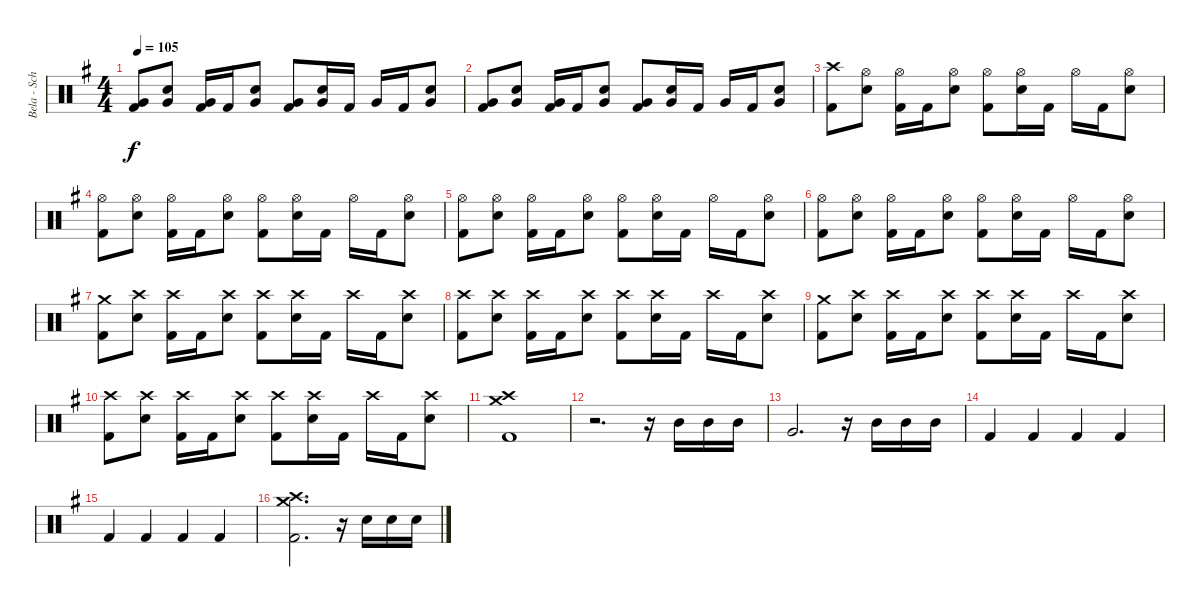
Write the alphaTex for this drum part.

\track ("Bela - Schlagzeug" "Bela - Sch") {instrument percussion}
\staff {score}
\articulation defaults
\ts (4 4)
\tempo 105
\clef neutral
\ks g
("Very Low Tom (hit)" "Kick (hit) 2").8{dy f} ("Very Low Tom (hit)" "Snare (hit) 2").8 ("Very Low Tom (hit)" "Kick (hit) 2").16 "Kick (hit) 2".16 ("Very Low Tom (hit)" "Snare (hit) 2").8 ("Very Low Tom (hit)" "Kick (hit) 2").8 ("Very Low Tom (hit)" "Snare (hit) 2").16 "Kick (hit) 2".16 "Very Low Tom (hit)".16 "Kick (hit) 2".16 ("Very Low Tom (hit)" "Snare (hit) 2").8 |
("Very Low Tom (hit)" "Kick (hit) 2").8 ("Very Low Tom (hit)" "Snare (hit) 2").8 ("Very Low Tom (hit)" "Kick (hit) 2").16 "Kick (hit) 2".16 ("Very Low Tom (hit)" "Snare (hit) 2").8 ("Very Low Tom (hit)" "Kick (hit) 2").8 ("Very Low Tom (hit)" "Snare (hit) 2").16 "Kick (hit) 2".16 "Very Low Tom (hit)".16 "Kick (hit) 2".16 ("Very Low Tom (hit)" "Snare (hit) 2").8 |
("Crash high (hit)" "Kick (hit) 2").8 ("Hi-Hat (open)" "Snare (hit) 2").8 ("Hi-Hat (open)" "Kick (hit) 2").16 "Kick (hit) 2".16 ("Hi-Hat (open)" "Snare (hit) 2").8 ("Hi-Hat (open)" "Kick (hit) 2").8 ("Hi-Hat (open)" "Snare (hit) 2").16 "Kick (hit) 2".16 "Hi-Hat (open)".16 "Kick (hit) 2".16 ("Hi-Hat (open)" "Snare (hit) 2").8 |
("Hi-Hat (open)" "Kick (hit) 2").8 ("Hi-Hat (open)" "Snare (hit) 2").8 ("Hi-Hat (open)" "Kick (hit) 2").16 "Kick (hit) 2".16 ("Hi-Hat (open)" "Snare (hit) 2").8 ("Hi-Hat (open)" "Kick (hit) 2").8 ("Hi-Hat (open)" "Snare (hit) 2").16 "Kick (hit) 2".16 "Hi-Hat (open)".16 "Kick (hit) 2".16 ("Hi-Hat (open)" "Snare (hit) 2").8 |
("Hi-Hat (open)" "Kick (hit) 2").8 ("Hi-Hat (open)" "Snare (hit) 2").8 ("Hi-Hat (open)" "Kick (hit) 2").16 "Kick (hit) 2".16 ("Hi-Hat (open)" "Snare (hit) 2").8 ("Hi-Hat (open)" "Kick (hit) 2").8 ("Hi-Hat (open)" "Snare (hit) 2").16 "Kick (hit) 2".16 "Hi-Hat (open)".16 "Kick (hit) 2".16 ("Hi-Hat (open)" "Snare (hit) 2").8 |
("Hi-Hat (open)" "Kick (hit) 2").8 ("Hi-Hat (open)" "Snare (hit) 2").8 ("Hi-Hat (open)" "Kick (hit) 2").16 "Kick (hit) 2".16 ("Hi-Hat (open)" "Snare (hit) 2").8 ("Hi-Hat (open)" "Kick (hit) 2").8 ("Hi-Hat (open)" "Snare (hit) 2").16 "Kick (hit) 2".16 "Hi-Hat (open)".16 "Kick (hit) 2".16 ("Hi-Hat (open)" "Snare (hit) 2").8 |
("Crash medium (hit)" "Kick (hit) 2").8 ("Crash high (hit)" "Snare (hit) 2").8 ("Crash high (hit)" "Kick (hit) 2").16 "Kick (hit) 2".16 ("Crash high (hit)" "Snare (hit) 2").8 ("Crash high (hit)" "Kick (hit) 2").8 ("Crash high (hit)" "Snare (hit) 2").16 "Kick (hit) 2".16 "Crash high (hit)".16 "Kick (hit) 2".16 ("Crash high (hit)" "Snare (hit) 2").8 |
("Crash high (hit)" "Kick (hit) 2").8 ("Crash high (hit)" "Snare (hit) 2").8 ("Crash high (hit)" "Kick (hit) 2").16 "Kick (hit) 2".16 ("Crash high (hit)" "Snare (hit) 2").8 ("Crash high (hit)" "Kick (hit) 2").8 ("Crash high (hit)" "Snare (hit) 2").16 "Kick (hit) 2".16 "Crash high (hit)".16 "Kick (hit) 2".16 ("Crash high (hit)" "Snare (hit) 2").8 |
("Crash medium (hit)" "Kick (hit) 2").8 ("Crash high (hit)" "Snare (hit) 2").8 ("Crash high (hit)" "Kick (hit) 2").16 "Kick (hit) 2".16 ("Crash high (hit)" "Snare (hit) 2").8 ("Crash high (hit)" "Kick (hit) 2").8 ("Crash high (hit)" "Snare (hit) 2").16 "Kick (hit) 2".16 "Crash high (hit)".16 "Kick (hit) 2".16 ("Crash high (hit)" "Snare (hit) 2").8 |
("Crash high (hit)" "Kick (hit) 2").8 ("Crash high (hit)" "Snare (hit) 2").8 ("Crash high (hit)" "Kick (hit) 2").16 "Kick (hit) 2".16 ("Crash high (hit)" "Snare (hit) 2").8 ("Crash high (hit)" "Kick (hit) 2").8 ("Crash high (hit)" "Snare (hit) 2").16 "Kick (hit) 2".16 "Crash high (hit)".16 "Kick (hit) 2".16 ("Crash high (hit)" "Snare (hit) 2").8 |
("Crash high (hit)" "Crash medium (hit)" "Kick (hit) 2").1 |
r.2{d} r.16 "Mid Tom (hit)".16 "Mid Tom (hit)".16 "Mid Tom (hit)".16 |
"Very Low Tom (hit)".2{d} r.16 "Mid Tom (hit)".16 "Mid Tom (hit)".16 "Mid Tom (hit)".16 |
"Kick (hit) 2".4 "Kick (hit) 2".4 "Kick (hit) 2".4 "Kick (hit) 2".4 |
"Kick (hit) 2".4 "Kick (hit) 2".4 "Kick (hit) 2".4 "Kick (hit) 2".4 |
("Crash high (hit)" "Crash medium (hit)" "Kick (hit) 2").2{d} r.16 "Snare (hit) 2".16 "Snare (hit) 2".16 "Snare (hit) 2".16
